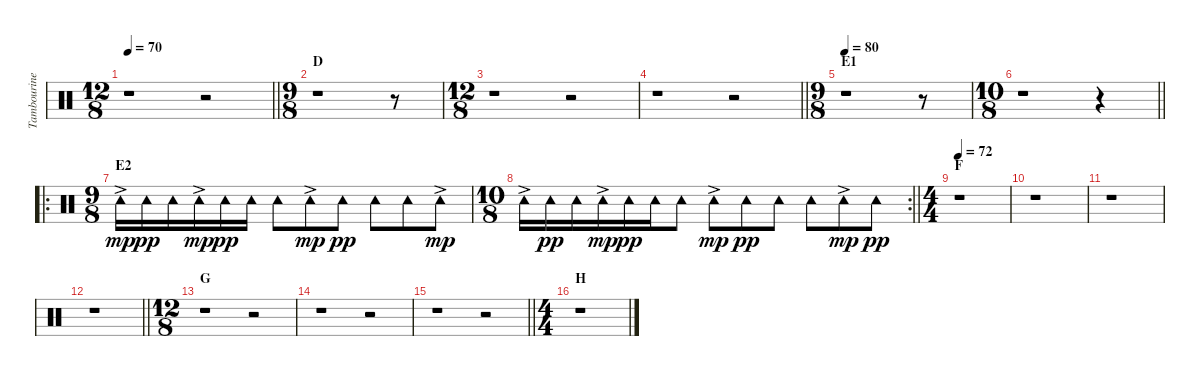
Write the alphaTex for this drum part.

\track ("Tambourine (Ringo Starr)" "Tambourine") {instrument percussion}
\staff {score}
\articulation defaults
\ts (12 8)
\tempo 70
\clef neutral
\barLineRight lightlight
\ks c
r.1{dy mp} r.2 |
\ts (9 8)
\section ("" "D")
r.1 r.8 |
\ts (12 8)
r.1 r.2 |
\barLineRight lightlight
r.1 r.2 |
\ts (9 8)
\section ("" "E1")
\tempo 80
r.1 r.8 |
\ts (10 8)
\barLineRight lightlight
r.1 r.4 |
\ro
\ts (9 8)
\section ("" "E2")
"Tambourine (hit)"{ac}.16 "Tambourine (hit)".16{dy pp} "Tambourine (hit)".16 "Tambourine (hit)"{ac}.16{dy mp} "Tambourine (hit)".16{dy pp} "Tambourine (hit)".16 "Tambourine (hit)".8 "Tambourine (hit)"{ac}.8{dy mp} "Tambourine (hit)".8{dy pp} "Tambourine (hit)".8 "Tambourine (hit)".8 "Tambourine (hit)"{ac}.8{dy mp} |
\rc 2
\ts (10 8)
\barLineRight lightlight "Tambourine (hit)"{ac}.16 "Tambourine (hit)".16{dy pp} "Tambourine (hit)".16 "Tambourine (hit)"{ac}.16{dy mp} "Tambourine (hit)".16{dy pp} "Tambourine (hit)".16 "Tambourine (hit)".8 "Tambourine (hit)"{ac}.8{dy mp} "Tambourine (hit)".8{dy pp} "Tambourine (hit)".8 "Tambourine (hit)".8 "Tambourine (hit)"{ac}.8{dy mp} "Tambourine (hit)".8{dy pp}
|
\ts (4 4)
\section ("" "F")
\tempo 72
r.1 |
r.1 |
r.1 |
\barLineRight lightlight
r.1 |
\ts (12 8)
\section ("" "G")
r.1 r.2 |
r.1 r.2 |
\barLineRight lightlight
r.1 r.2 |
\ts (4 4)
\section ("" "H")
r.1
